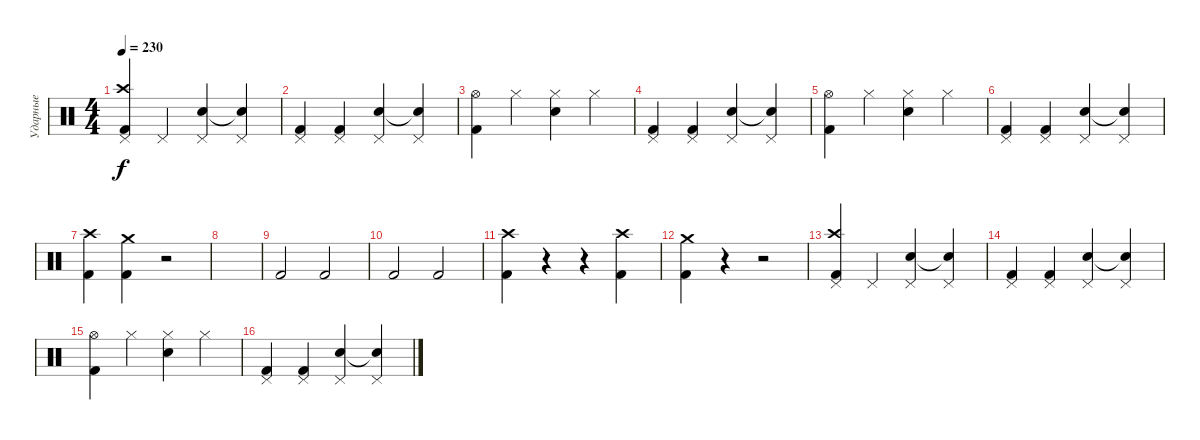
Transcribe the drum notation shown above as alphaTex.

\track ("Ударные" "Ударные") {instrument percussion}
\staff {score}
\articulation defaults
\ts (4 4)
\tempo 230
\clef neutral
\ks c
("Pedal Hi-Hat (hit)" "Crash high (hit)" "Kick (hit) 2").4{dy f} "Pedal Hi-Hat (hit)".4 ("Pedal Hi-Hat (hit)" "Electric Snare (hit)").4 ("Pedal Hi-Hat (hit)" "Electric Snare (hit)"{t}).4 |
("Pedal Hi-Hat (hit)" "Kick (hit) 2").4 ("Pedal Hi-Hat (hit)" "Kick (hit) 2").4 ("Pedal Hi-Hat (hit)" "Electric Snare (hit)").4 ("Pedal Hi-Hat (hit)" "Electric Snare (hit)"{t}).4 |
("Hi-Hat (open)" "Kick (hit) 2").4 "Hi-Hat (closed)".4 ("Hi-Hat (closed)" "Electric Snare (hit)").4 "Hi-Hat (closed)".4 |
("Pedal Hi-Hat (hit)" "Kick (hit) 2").4 ("Pedal Hi-Hat (hit)" "Kick (hit) 2").4 ("Pedal Hi-Hat (hit)" "Electric Snare (hit)").4 ("Pedal Hi-Hat (hit)" "Electric Snare (hit)"{t}).4 |
("Hi-Hat (open)" "Kick (hit) 2").4 "Hi-Hat (closed)".4 ("Hi-Hat (closed)" "Electric Snare (hit)").4 "Hi-Hat (closed)".4 |
("Pedal Hi-Hat (hit)" "Kick (hit) 2").4 ("Pedal Hi-Hat (hit)" "Kick (hit) 2").4 ("Pedal Hi-Hat (hit)" "Electric Snare (hit)").4 ("Pedal Hi-Hat (hit)" "Electric Snare (hit)"{t}).4 |
("Crash high (hit)" "Kick (hit) 2").4 ("Crash medium (hit)" "Kick (hit) 2").4 r.2 |
|
"Kick (hit) 2".2 "Kick (hit) 2".2 |
"Kick (hit) 2".2 "Kick (hit) 2".2 |
("Crash high (hit)" "Kick (hit) 2").4 r.4 r.4 ("Crash high (hit)" "Kick (hit) 2").4 |
("Crash medium (hit)" "Kick (hit) 2").4 r.4 r.2 |
("Pedal Hi-Hat (hit)" "Crash high (hit)" "Kick (hit) 2").4 "Pedal Hi-Hat (hit)".4 ("Pedal Hi-Hat (hit)" "Electric Snare (hit)").4 ("Pedal Hi-Hat (hit)" "Electric Snare (hit)"{t}).4 |
("Pedal Hi-Hat (hit)" "Kick (hit) 2").4 ("Pedal Hi-Hat (hit)" "Kick (hit) 2").4 ("Pedal Hi-Hat (hit)" "Electric Snare (hit)").4 ("Pedal Hi-Hat (hit)" "Electric Snare (hit)"{t}).4 |
("Hi-Hat (open)" "Kick (hit) 2").4 "Hi-Hat (closed)".4 ("Hi-Hat (closed)" "Electric Snare (hit)").4 "Hi-Hat (closed)".4 |
("Pedal Hi-Hat (hit)" "Kick (hit) 2").4 ("Pedal Hi-Hat (hit)" "Kick (hit) 2").4 ("Pedal Hi-Hat (hit)" "Electric Snare (hit)").4 ("Pedal Hi-Hat (hit)" "Electric Snare (hit)"{t}).4
